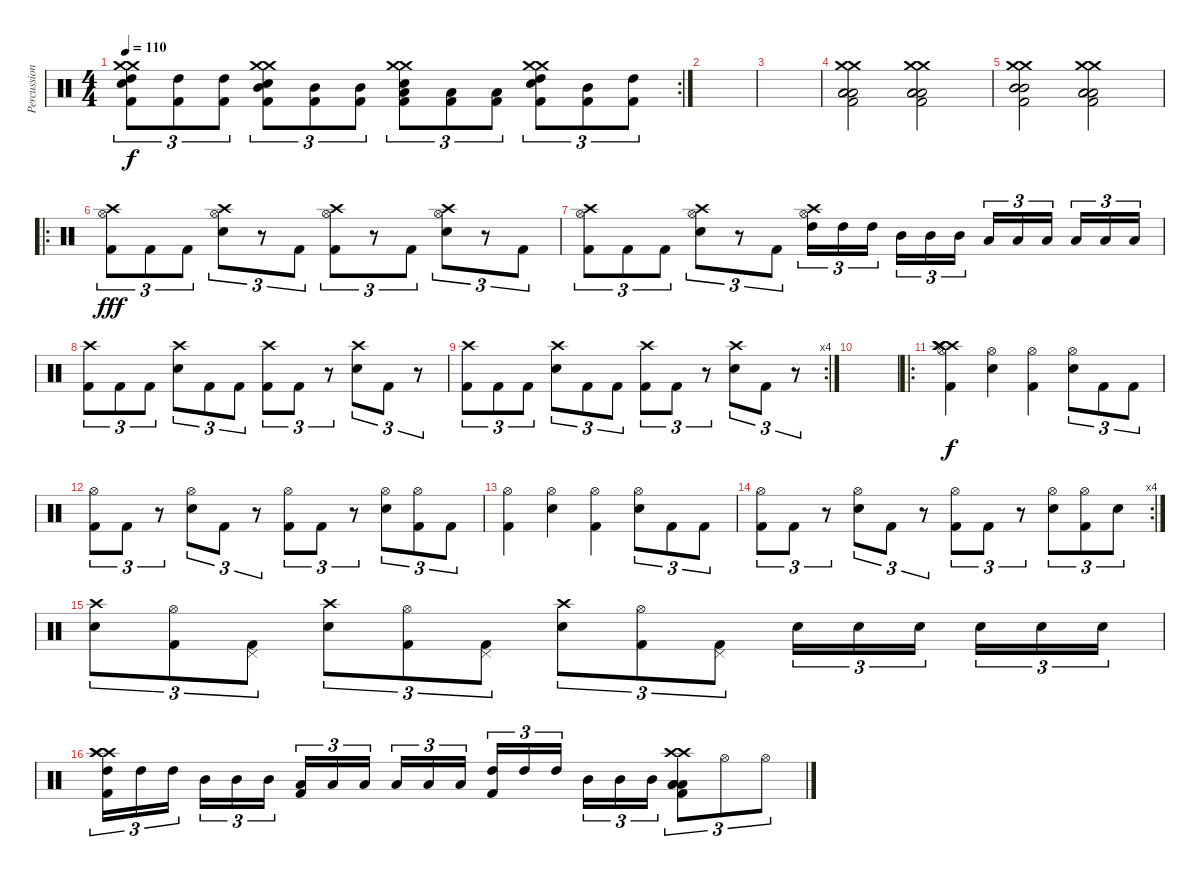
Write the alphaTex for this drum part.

\track ("Percussion" "Percussion") {instrument percussion}
\staff {score}
\articulation defaults
\rc 2
\ts (4 4)
\tempo 110
\clef neutral
\ks c
("Crash medium (hit)" "Crash medium (hit)" "High Tom (hit)" "Snare (hit) 2" "Kick (hit) 2").8{tu (3 2) dy f} ("High Tom (hit)" "Kick (hit) 2").8{tu (3 2)} ("High Tom (hit)" "Kick (hit) 2").8{tu (3 2)} ("Crash medium (hit)" "Crash medium (hit)" "Mid Tom (hit)" "Snare (hit) 2" "Kick (hit) 2").8{tu (3 2)} ("Mid Tom (hit)" "Kick (hit) 2").8{tu (3 2)} ("Mid Tom (hit)" "Kick (hit) 2").8{tu (3 2)} ("Crash medium (hit)" "Crash medium (hit)" "Low Tom (hit)" "Snare (hit) 2" "Kick (hit) 2").8{tu (3 2)} ("Low Tom (hit)" "Kick (hit) 2").8{tu (3 2)} ("Low Tom (hit)" "Kick (hit) 2").8{tu (3 2)} ("Crash medium (hit)" "Crash medium (hit)" "High Tom (hit)" "Snare (hit) 2" "Kick (hit) 2").8{tu (3 2)} ("Mid Tom (hit)" "Kick (hit) 2").8{tu (3 2)} ("High Tom (hit)" "Kick (hit) 2").8{tu (3 2)} |
|
|
("Crash medium (hit)" "Crash medium (hit)" "Low Tom (hit)" "Low Tom (hit)" "Low Tom (hit)" "Kick (hit) 2").2 ("Crash medium (hit)" "Crash medium (hit)" "Low Tom (hit)" "Low Tom (hit)" "Low Tom (hit)" "Kick (hit) 2").2 |
("Crash medium (hit)" "Crash medium (hit)" "Mid Tom (hit)" "Mid Tom (hit)" "Mid Tom (hit)" "Kick (hit) 2").2 ("Crash medium (hit)" "Crash medium (hit)" "Low Tom (hit)" "Low Tom (hit)" "Low Tom (hit)" "Kick (hit) 2").2 |
\ro
("Crash high (hit)" "Hi-Hat (open)" "Kick (hit) 2").8{tu (3 2) dy fff volume 16} "Kick (hit) 2".8{tu (3 2)} "Kick (hit) 2".8{tu (3 2)} ("Crash high (hit)" "Hi-Hat (open)" "Snare (hit) 2").8{tu (3 2)} r.8{tu (3 2)} "Kick (hit) 2".8{tu (3 2)} ("Crash high (hit)" "Hi-Hat (open)" "Kick (hit) 2").8{tu (3 2)} r.8{tu (3 2)} "Kick (hit) 2".8{tu (3 2)} ("Crash high (hit)" "Hi-Hat (open)" "Snare (hit) 2").8{tu (3 2)} r.8{tu (3 2)} "Kick (hit) 2".8{tu (3 2)} |
("Crash high (hit)" "Hi-Hat (open)" "Kick (hit) 2").8{tu (3 2)} "Kick (hit) 2".8{tu (3 2)} "Kick (hit) 2".8{tu (3 2)} ("Crash high (hit)" "Hi-Hat (open)" "Snare (hit) 2").8{tu (3 2)} r.8{tu (3 2)} "Kick (hit) 2".8{tu (3 2)} ("Crash high (hit)" "Hi-Hat (open)" "High Tom (hit)").16{tu (3 2)} "High Tom (hit)".16{tu (3 2)} "High Tom (hit)".16{tu (3 2)} "Mid Tom (hit)".16{tu (3 2)} "Mid Tom (hit)".16{tu (3 2)} "Mid Tom (hit)".16{tu (3 2)} "Low Tom (hit)".16{tu (3 2)} "Low Tom (hit)".16{tu (3 2)} "Low Tom (hit)".16{tu (3 2)} "Low Tom (hit)".16{tu (3 2)} "Low Tom (hit)".16{tu (3 2)} "Low Tom (hit)".16{tu (3 2)} |
("Crash high (hit)" "Kick (hit) 2").8{tu (3 2)} "Kick (hit) 2".8{tu (3 2)} "Kick (hit) 2".8{tu (3 2)} ("Crash high (hit)" "Snare (hit) 2").8{tu (3 2)} "Kick (hit) 2".8{tu (3 2)} "Kick (hit) 2".8{tu (3 2)} ("Crash high (hit)" "Kick (hit) 2").8{tu (3 2)} "Kick (hit) 2".8{tu (3 2)} r.8{tu (3 2)} ("Crash high (hit)" "Snare (hit) 2").8{tu (3 2)} "Kick (hit) 2".8{tu (3 2)} r.8{tu (3 2)} |
\rc 4
("Crash high (hit)" "Kick (hit) 2").8{tu (3 2)} "Kick (hit) 2".8{tu (3 2)} "Kick (hit) 2".8{tu (3 2)} ("Crash high (hit)" "Snare (hit) 2").8{tu (3 2)} "Kick (hit) 2".8{tu (3 2)} "Kick (hit) 2".8{tu (3 2)} ("Crash high (hit)" "Kick (hit) 2").8{tu (3 2)} "Kick (hit) 2".8{tu (3 2)} r.8{tu (3 2)} ("Crash high (hit)" "Snare (hit) 2").8{tu (3 2)} "Kick (hit) 2".8{tu (3 2)} r.8{tu (3 2)} |
|
\ro
("Crash high (hit)" "Crash high (hit)" "Crash high (hit)" "Crash high (hit)" "Hi-Hat (open)" "Kick (hit) 2").4{dy f} ("Hi-Hat (open)" "Snare (hit) 2").4 ("Hi-Hat (open)" "Kick (hit) 2").4 ("Hi-Hat (open)" "Snare (hit) 2").8{tu (3 2)} "Kick (hit) 2".8{tu (3 2)} "Kick (hit) 2".8{tu (3 2)} |
("Hi-Hat (open)" "Kick (hit) 2").8{tu (3 2)} "Kick (hit) 2".8{tu (3 2)} r.8{tu (3 2)} ("Hi-Hat (open)" "Snare (hit) 2").8{tu (3 2)} "Kick (hit) 2".8{tu (3 2)} r.8{tu (3 2)} ("Hi-Hat (open)" "Kick (hit) 2").8{tu (3 2)} "Kick (hit) 2".8{tu (3 2)} r.8{tu (3 2)} ("Hi-Hat (open)" "Snare (hit) 2").8{tu (3 2)} ("Hi-Hat (open)" "Kick (hit) 2").8{tu (3 2)} "Kick (hit) 2".8{tu (3 2)} |
("Hi-Hat (open)" "Kick (hit) 2").4 ("Hi-Hat (open)" "Snare (hit) 2").4 ("Hi-Hat (open)" "Kick (hit) 2").4 ("Hi-Hat (open)" "Snare (hit) 2").8{tu (3 2)} "Kick (hit) 2".8{tu (3 2)} "Kick (hit) 2".8{tu (3 2)} |
\rc 4
("Hi-Hat (open)" "Kick (hit) 2").8{tu (3 2)} "Kick (hit) 2".8{tu (3 2)} r.8{tu (3 2)} ("Hi-Hat (open)" "Snare (hit) 2").8{tu (3 2)} "Kick (hit) 2".8{tu (3 2)} r.8{tu (3 2)} ("Hi-Hat (open)" "Kick (hit) 2").8{tu (3 2)} "Kick (hit) 2".8{tu (3 2)} r.8{tu (3 2)} ("Hi-Hat (open)" "Snare (hit) 2").8{tu (3 2)} ("Hi-Hat (open)" "Kick (hit) 2").8{tu (3 2)} "Snare (hit) 2".8{tu (3 2)} |
("Crash high (hit)" "Snare (hit) 2").8{tu (3 2)} ("Hi-Hat (open)" "Kick (hit) 2").8{tu (3 2)} ("Pedal Hi-Hat (hit)" "Kick (hit) 2").8{tu (3 2)} ("Crash high (hit)" "Snare (hit) 2").8{tu (3 2)} ("Hi-Hat (open)" "Kick (hit) 2").8{tu (3 2)} ("Pedal Hi-Hat (hit)" "Kick (hit) 2").8{tu (3 2)} ("Crash high (hit)" "Snare (hit) 2").8{tu (3 2)} ("Hi-Hat (open)" "Kick (hit) 2").8{tu (3 2)} ("Pedal Hi-Hat (hit)" "Kick (hit) 2").8{tu (3 2)} "Snare (hit) 2".16{tu (3 2)} "Snare (hit) 2".16{tu (3 2)} "Snare (hit) 2".16{tu (3 2)} "Snare (hit) 2".16{tu (3 2)} "Snare (hit) 2".16{tu (3 2)} "Snare (hit) 2".16{tu (3 2)} |
("Crash high (hit)" "Crash high (hit)" "Crash high (hit)" "High Tom (hit)" "Kick (hit) 2").16{tu (3 2)} "High Tom (hit)".16{tu (3 2)} "High Tom (hit)".16{tu (3 2)} "Mid Tom (hit)".16{tu (3 2)} "Mid Tom (hit)".16{tu (3 2)} "Mid Tom (hit)".16{tu (3 2)} ("Low Tom (hit)" "Kick (hit) 2").16{tu (3 2)} "Low Tom (hit)".16{tu (3 2)} "Low Tom (hit)".16{tu (3 2)} "Low Tom (hit)".16{tu (3 2)} "Low Tom (hit)".16{tu (3 2)} "Low Tom (hit)".16{tu (3 2)} ("High Tom (hit)" "Kick (hit) 2").16{tu (3 2)} "High Tom (hit)".16{tu (3 2)} "High Tom (hit)".16{tu (3 2)} "Mid Tom (hit)".16{tu (3 2)} "Mid Tom (hit)".16{tu (3 2)} "Mid Tom (hit)".16{tu (3 2)} ("Crash high (hit)" "Crash high (hit)" "Low Tom (hit)" "Low Tom (hit)" "Low Tom (hit)" "Kick (hit) 2").8{tu (3 2)} "Hi-Hat (open)".8{tu (3 2)} "Hi-Hat (open)".8{tu (3 2)}
